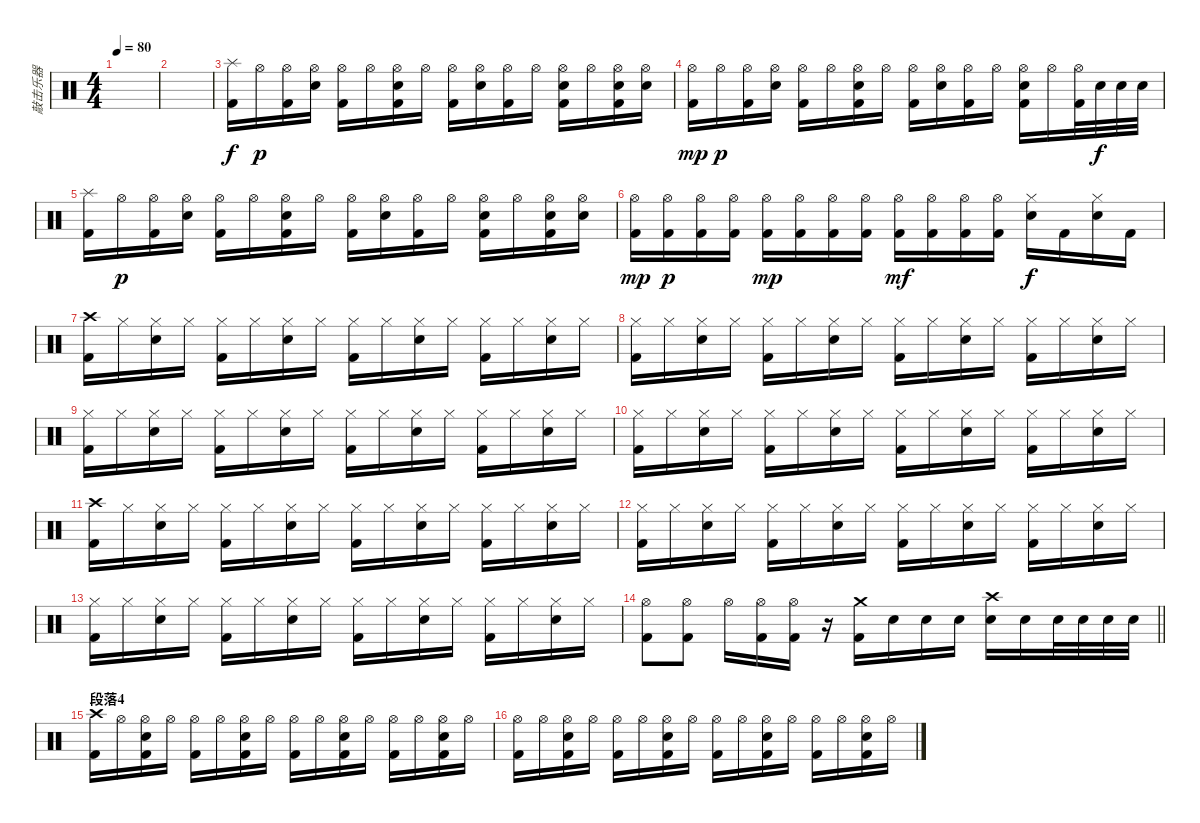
\track ("敲击乐器" "敲击乐器") {instrument percussion}
\staff {score}
\articulation defaults
\ts (4 4)
\tempo 80
\clef neutral
\ks c
|
|
("Splash (hit)" "Kick (hit) 2").16 "Hi-Hat (open)".16{dy p} ("Hi-Hat (open)" "Kick (hit) 2").16 ("Hi-Hat (open)" "Electric Snare (hit)").16 ("Hi-Hat (open)" "Kick (hit) 2").16 "Hi-Hat (open)".16 ("Hi-Hat (open)" "Electric Snare (hit)" "Kick (hit) 2").16 "Hi-Hat (open)".16 ("Hi-Hat (open)" "Kick (hit) 2").16 ("Hi-Hat (open)" "Electric Snare (hit)").16 ("Hi-Hat (open)" "Kick (hit) 2").16 "Hi-Hat (open)".16 ("Hi-Hat (open)" "Electric Snare (hit)" "Kick (hit) 2").16 "Hi-Hat (open)".16 ("Hi-Hat (open)" "Electric Snare (hit)" "Kick (hit) 2").16 ("Hi-Hat (open)" "Electric Snare (hit)").16 |
("Hi-Hat (open)" "Kick (hit) 2").16{dy mp} "Hi-Hat (open)".16{dy p} ("Hi-Hat (open)" "Kick (hit) 2").16 ("Hi-Hat (open)" "Electric Snare (hit)").16 ("Hi-Hat (open)" "Kick (hit) 2").16 "Hi-Hat (open)".16 ("Hi-Hat (open)" "Electric Snare (hit)" "Kick (hit) 2").16 "Hi-Hat (open)".16 ("Hi-Hat (open)" "Kick (hit) 2").16 ("Hi-Hat (open)" "Electric Snare (hit)").16 ("Hi-Hat (open)" "Kick (hit) 2").16 "Hi-Hat (open)".16 ("Hi-Hat (open)" "Electric Snare (hit)" "Kick (hit) 2").16 "Hi-Hat (open)".16 ("Hi-Hat (open)" "Kick (hit) 2").32 "Electric Snare (hit)".32{dy f} "Electric Snare (hit)".32 "Electric Snare (hit)".32 |
("Splash (hit)" "Kick (hit) 2").16 "Hi-Hat (open)".16{dy p} ("Hi-Hat (open)" "Kick (hit) 2").16 ("Hi-Hat (open)" "Electric Snare (hit)").16 ("Hi-Hat (open)" "Kick (hit) 2").16 "Hi-Hat (open)".16 ("Hi-Hat (open)" "Electric Snare (hit)" "Kick (hit) 2").16 "Hi-Hat (open)".16 ("Hi-Hat (open)" "Kick (hit) 2").16 ("Hi-Hat (open)" "Electric Snare (hit)").16 ("Hi-Hat (open)" "Kick (hit) 2").16 "Hi-Hat (open)".16 ("Hi-Hat (open)" "Electric Snare (hit)" "Kick (hit) 2").16 "Hi-Hat (open)".16 ("Hi-Hat (open)" "Electric Snare (hit)" "Kick (hit) 2").16 ("Hi-Hat (open)" "Electric Snare (hit)").16 |
("Hi-Hat (open)" "Kick (hit) 2").16{dy mp} ("Hi-Hat (open)" "Kick (hit) 2").16{dy p} ("Hi-Hat (open)" "Kick (hit) 2").16 ("Hi-Hat (open)" "Kick (hit) 2").16 ("Hi-Hat (open)" "Kick (hit) 2").16{dy mp} ("Hi-Hat (open)" "Kick (hit) 2").16 ("Hi-Hat (open)" "Kick (hit) 2").16 ("Hi-Hat (open)" "Kick (hit) 2").16 ("Hi-Hat (open)" "Kick (hit) 2").16{dy mf} ("Hi-Hat (open)" "Kick (hit) 2").16 ("Hi-Hat (open)" "Kick (hit) 2").16 ("Hi-Hat (open)" "Kick (hit) 2").16 ("Hi-Hat (closed)" "Electric Snare (hit)").16{dy f} "Kick (hit) 2".16 ("Hi-Hat (closed)" "Electric Snare (hit)").16 "Kick (hit) 2".16 |
("Crash high (hit)" "Kick (hit) 2").16 "Hi-Hat (closed)".16 ("Hi-Hat (closed)" "Electric Snare (hit)").16 "Hi-Hat (closed)".16 ("Hi-Hat (closed)" "Kick (hit) 2").16 "Hi-Hat (closed)".16 ("Hi-Hat (closed)" "Electric Snare (hit)").16 "Hi-Hat (closed)".16 ("Hi-Hat (closed)" "Kick (hit) 2").16 "Hi-Hat (closed)".16 ("Hi-Hat (closed)" "Electric Snare (hit)").16 "Hi-Hat (closed)".16 ("Hi-Hat (closed)" "Kick (hit) 2").16 "Hi-Hat (closed)".16 ("Hi-Hat (closed)" "Electric Snare (hit)").16 "Hi-Hat (closed)".16 |
("Hi-Hat (closed)" "Kick (hit) 2").16 "Hi-Hat (closed)".16 ("Hi-Hat (closed)" "Electric Snare (hit)").16 "Hi-Hat (closed)".16 ("Hi-Hat (closed)" "Kick (hit) 2").16 "Hi-Hat (closed)".16 ("Hi-Hat (closed)" "Electric Snare (hit)").16 "Hi-Hat (closed)".16 ("Hi-Hat (closed)" "Kick (hit) 2").16 "Hi-Hat (closed)".16 ("Hi-Hat (closed)" "Electric Snare (hit)").16 "Hi-Hat (closed)".16 ("Hi-Hat (closed)" "Kick (hit) 2").16 "Hi-Hat (closed)".16 ("Hi-Hat (closed)" "Electric Snare (hit)").16 "Hi-Hat (closed)".16 |
("Hi-Hat (closed)" "Kick (hit) 2").16 "Hi-Hat (closed)".16 ("Hi-Hat (closed)" "Electric Snare (hit)").16 "Hi-Hat (closed)".16 ("Hi-Hat (closed)" "Kick (hit) 2").16 "Hi-Hat (closed)".16 ("Hi-Hat (closed)" "Electric Snare (hit)").16 "Hi-Hat (closed)".16 ("Hi-Hat (closed)" "Kick (hit) 2").16 "Hi-Hat (closed)".16 ("Hi-Hat (closed)" "Electric Snare (hit)").16 "Hi-Hat (closed)".16 ("Hi-Hat (closed)" "Kick (hit) 2").16 "Hi-Hat (closed)".16 ("Hi-Hat (closed)" "Electric Snare (hit)").16 "Hi-Hat (closed)".16 |
("Hi-Hat (closed)" "Kick (hit) 2").16 "Hi-Hat (closed)".16 ("Hi-Hat (closed)" "Electric Snare (hit)").16 "Hi-Hat (closed)".16 ("Hi-Hat (closed)" "Kick (hit) 2").16 "Hi-Hat (closed)".16 ("Hi-Hat (closed)" "Electric Snare (hit)").16 "Hi-Hat (closed)".16 ("Hi-Hat (closed)" "Kick (hit) 2").16 "Hi-Hat (closed)".16 ("Hi-Hat (closed)" "Electric Snare (hit)").16 "Hi-Hat (closed)".16 ("Hi-Hat (closed)" "Kick (hit) 2").16 "Hi-Hat (closed)".16 ("Hi-Hat (closed)" "Electric Snare (hit)").16 "Hi-Hat (closed)".16 |
("Crash high (hit)" "Kick (hit) 2").16 "Hi-Hat (closed)".16 ("Hi-Hat (closed)" "Electric Snare (hit)").16 "Hi-Hat (closed)".16 ("Hi-Hat (closed)" "Kick (hit) 2").16 "Hi-Hat (closed)".16 ("Hi-Hat (closed)" "Electric Snare (hit)").16 "Hi-Hat (closed)".16 ("Hi-Hat (closed)" "Kick (hit) 2").16 "Hi-Hat (closed)".16 ("Hi-Hat (closed)" "Electric Snare (hit)").16 "Hi-Hat (closed)".16 ("Hi-Hat (closed)" "Kick (hit) 2").16 "Hi-Hat (closed)".16 ("Hi-Hat (closed)" "Electric Snare (hit)").16 "Hi-Hat (closed)".16 |
("Hi-Hat (closed)" "Kick (hit) 2").16 "Hi-Hat (closed)".16 ("Hi-Hat (closed)" "Electric Snare (hit)").16 "Hi-Hat (closed)".16 ("Hi-Hat (closed)" "Kick (hit) 2").16 "Hi-Hat (closed)".16 ("Hi-Hat (closed)" "Electric Snare (hit)").16 "Hi-Hat (closed)".16 ("Hi-Hat (closed)" "Kick (hit) 2").16 "Hi-Hat (closed)".16 ("Hi-Hat (closed)" "Electric Snare (hit)").16 "Hi-Hat (closed)".16 ("Hi-Hat (closed)" "Kick (hit) 2").16 "Hi-Hat (closed)".16 ("Hi-Hat (closed)" "Electric Snare (hit)").16 "Hi-Hat (closed)".16 |
("Hi-Hat (closed)" "Kick (hit) 2").16 "Hi-Hat (closed)".16 ("Hi-Hat (closed)" "Electric Snare (hit)").16 "Hi-Hat (closed)".16 ("Hi-Hat (closed)" "Kick (hit) 2").16 "Hi-Hat (closed)".16 ("Hi-Hat (closed)" "Electric Snare (hit)").16 "Hi-Hat (closed)".16 ("Hi-Hat (closed)" "Kick (hit) 2").16 "Hi-Hat (closed)".16 ("Hi-Hat (closed)" "Electric Snare (hit)").16 "Hi-Hat (closed)".16 ("Hi-Hat (closed)" "Kick (hit) 2").16 "Hi-Hat (closed)".16 ("Hi-Hat (closed)" "Electric Snare (hit)").16 "Hi-Hat (closed)".16 |
\barLineRight lightlight
("Hi-Hat (open)" "Kick (hit) 2").8 ("Hi-Hat (open)" "Kick (hit) 2").8 "Hi-Hat (open)".16 ("Hi-Hat (open)" "Kick (hit) 2").16 ("Hi-Hat (open)" "Kick (hit) 2").16 r.16 ("Crash medium (hit)" "Kick (hit) 2").16 "Electric Snare (hit)".16 "Electric Snare (hit)".16 "Electric Snare (hit)".16 ("Crash high (hit)" "Electric Snare (hit)").16 "Electric Snare (hit)".16 "Electric Snare (hit)".32 "Electric Snare (hit)".32 "Electric Snare (hit)".32 "Electric Snare (hit)".32 |
\section ("" "段落4")
("Crash high (hit)" "Kick (hit) 2").16 "Hi-Hat (open)".16 ("Hi-Hat (open)" "Electric Snare (hit)" "Kick (hit) 2").16 "Hi-Hat (open)".16 ("Hi-Hat (open)" "Kick (hit) 2").16 "Hi-Hat (open)".16 ("Hi-Hat (open)" "Electric Snare (hit)" "Kick (hit) 2").16 "Hi-Hat (open)".16 ("Hi-Hat (open)" "Kick (hit) 2").16 "Hi-Hat (open)".16 ("Hi-Hat (open)" "Electric Snare (hit)" "Kick (hit) 2").16 "Hi-Hat (open)".16 ("Hi-Hat (open)" "Kick (hit) 2").16 "Hi-Hat (open)".16 ("Hi-Hat (open)" "Electric Snare (hit)" "Kick (hit) 2").16 "Hi-Hat (open)".16 |
("Hi-Hat (open)" "Kick (hit) 2").16 "Hi-Hat (open)".16 ("Hi-Hat (open)" "Electric Snare (hit)" "Kick (hit) 2").16 "Hi-Hat (open)".16 ("Hi-Hat (open)" "Kick (hit) 2").16 "Hi-Hat (open)".16 ("Hi-Hat (open)" "Electric Snare (hit)" "Kick (hit) 2").16 "Hi-Hat (open)".16 ("Hi-Hat (open)" "Kick (hit) 2").16 "Hi-Hat (open)".16 ("Hi-Hat (open)" "Electric Snare (hit)" "Kick (hit) 2").16 "Hi-Hat (open)".16 ("Hi-Hat (open)" "Kick (hit) 2").16 "Hi-Hat (open)".16 ("Hi-Hat (open)" "Electric Snare (hit)" "Kick (hit) 2").16 "Hi-Hat (open)".16
